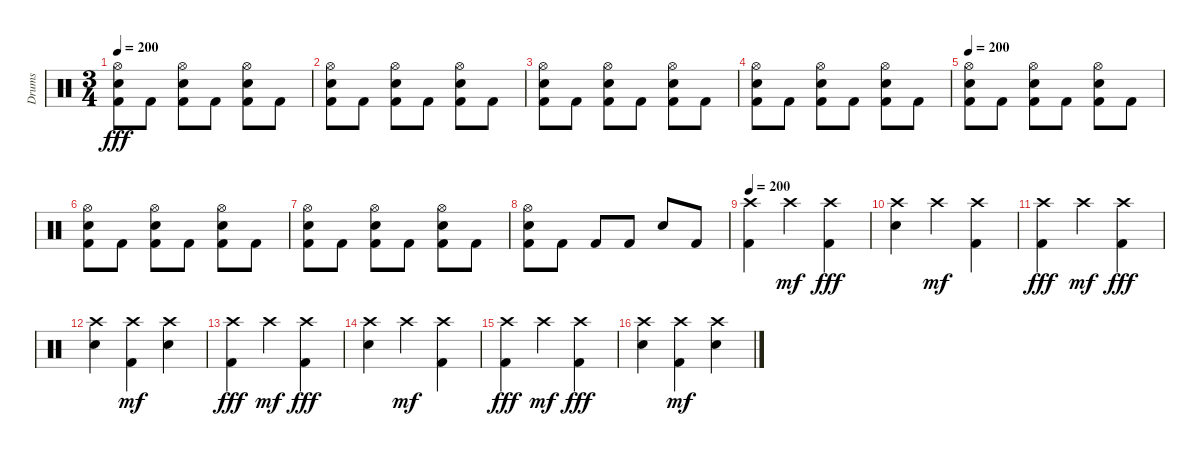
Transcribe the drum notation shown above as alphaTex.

\track ("Drums" "Drums") {instrument percussion}
\staff {score}
\articulation defaults
\ts (3 4)
\tempo 200
\clef neutral
\ks c
("Hi-Hat (open)" "Electric Snare (hit)" "Kick (hit) 2").8{dy fff} "Kick (hit) 2".8 ("Hi-Hat (open)" "Electric Snare (hit)" "Kick (hit) 2").8 "Kick (hit) 2".8 ("Hi-Hat (open)" "Electric Snare (hit)" "Kick (hit) 2").8 "Kick (hit) 2".8 |
("Hi-Hat (open)" "Electric Snare (hit)" "Kick (hit) 2").8 "Kick (hit) 2".8 ("Hi-Hat (open)" "Electric Snare (hit)" "Kick (hit) 2").8 "Kick (hit) 2".8 ("Hi-Hat (open)" "Electric Snare (hit)" "Kick (hit) 2").8 "Kick (hit) 2".8 |
("Hi-Hat (open)" "Electric Snare (hit)" "Kick (hit) 2").8 "Kick (hit) 2".8 ("Hi-Hat (open)" "Electric Snare (hit)" "Kick (hit) 2").8 "Kick (hit) 2".8 ("Hi-Hat (open)" "Electric Snare (hit)" "Kick (hit) 2").8 "Kick (hit) 2".8 |
("Hi-Hat (open)" "Electric Snare (hit)" "Kick (hit) 2").8 "Kick (hit) 2".8 ("Hi-Hat (open)" "Electric Snare (hit)" "Kick (hit) 2").8 "Kick (hit) 2".8 ("Hi-Hat (open)" "Electric Snare (hit)" "Kick (hit) 2").8 "Kick (hit) 2".8 |
\tempo 200
("Hi-Hat (open)" "Electric Snare (hit)" "Kick (hit) 2").8 "Kick (hit) 2".8 ("Hi-Hat (open)" "Electric Snare (hit)" "Kick (hit) 2").8 "Kick (hit) 2".8 ("Hi-Hat (open)" "Electric Snare (hit)" "Kick (hit) 2").8 "Kick (hit) 2".8 |
("Hi-Hat (open)" "Electric Snare (hit)" "Kick (hit) 2").8 "Kick (hit) 2".8 ("Hi-Hat (open)" "Electric Snare (hit)" "Kick (hit) 2").8 "Kick (hit) 2".8 ("Hi-Hat (open)" "Electric Snare (hit)" "Kick (hit) 2").8 "Kick (hit) 2".8 |
("Hi-Hat (open)" "Electric Snare (hit)" "Kick (hit) 2").8 "Kick (hit) 2".8 ("Hi-Hat (open)" "Electric Snare (hit)" "Kick (hit) 2").8 "Kick (hit) 2".8 ("Hi-Hat (open)" "Electric Snare (hit)" "Kick (hit) 2").8 "Kick (hit) 2".8 |
("Hi-Hat (open)" "Electric Snare (hit)" "Kick (hit) 2").8 "Kick (hit) 2".8 "Kick (hit) 2".8 "Kick (hit) 2".8 "Electric Snare (hit)".8 "Kick (hit) 2".8 |
\tempo 200
("Crash high (hit)" "Kick (hit) 2").4 "Crash high (hit)".4{dy mf} ("Crash high (hit)" "Kick (hit) 2").4{dy fff} |
("Crash high (hit)" "Electric Snare (hit)").4 "Crash high (hit)".4{dy mf} ("Crash high (hit)" "Kick (hit) 2").4 |
("Crash high (hit)" "Kick (hit) 2").4{dy fff} "Crash high (hit)".4{dy mf} ("Crash high (hit)" "Kick (hit) 2").4{dy fff} |
("Crash high (hit)" "Electric Snare (hit)").4 ("Crash high (hit)" "Kick (hit) 2").4{dy mf} ("Crash high (hit)" "Electric Snare (hit)").4 |
("Crash high (hit)" "Kick (hit) 2").4{dy fff} "Crash high (hit)".4{dy mf} ("Crash high (hit)" "Kick (hit) 2").4{dy fff} |
("Crash high (hit)" "Electric Snare (hit)").4 "Crash high (hit)".4{dy mf} ("Crash high (hit)" "Kick (hit) 2").4 |
("Crash high (hit)" "Kick (hit) 2").4{dy fff} "Crash high (hit)".4{dy mf} ("Crash high (hit)" "Kick (hit) 2").4{dy fff} |
("Crash high (hit)" "Electric Snare (hit)").4 ("Crash high (hit)" "Kick (hit) 2").4{dy mf} ("Crash high (hit)" "Electric Snare (hit)").4
